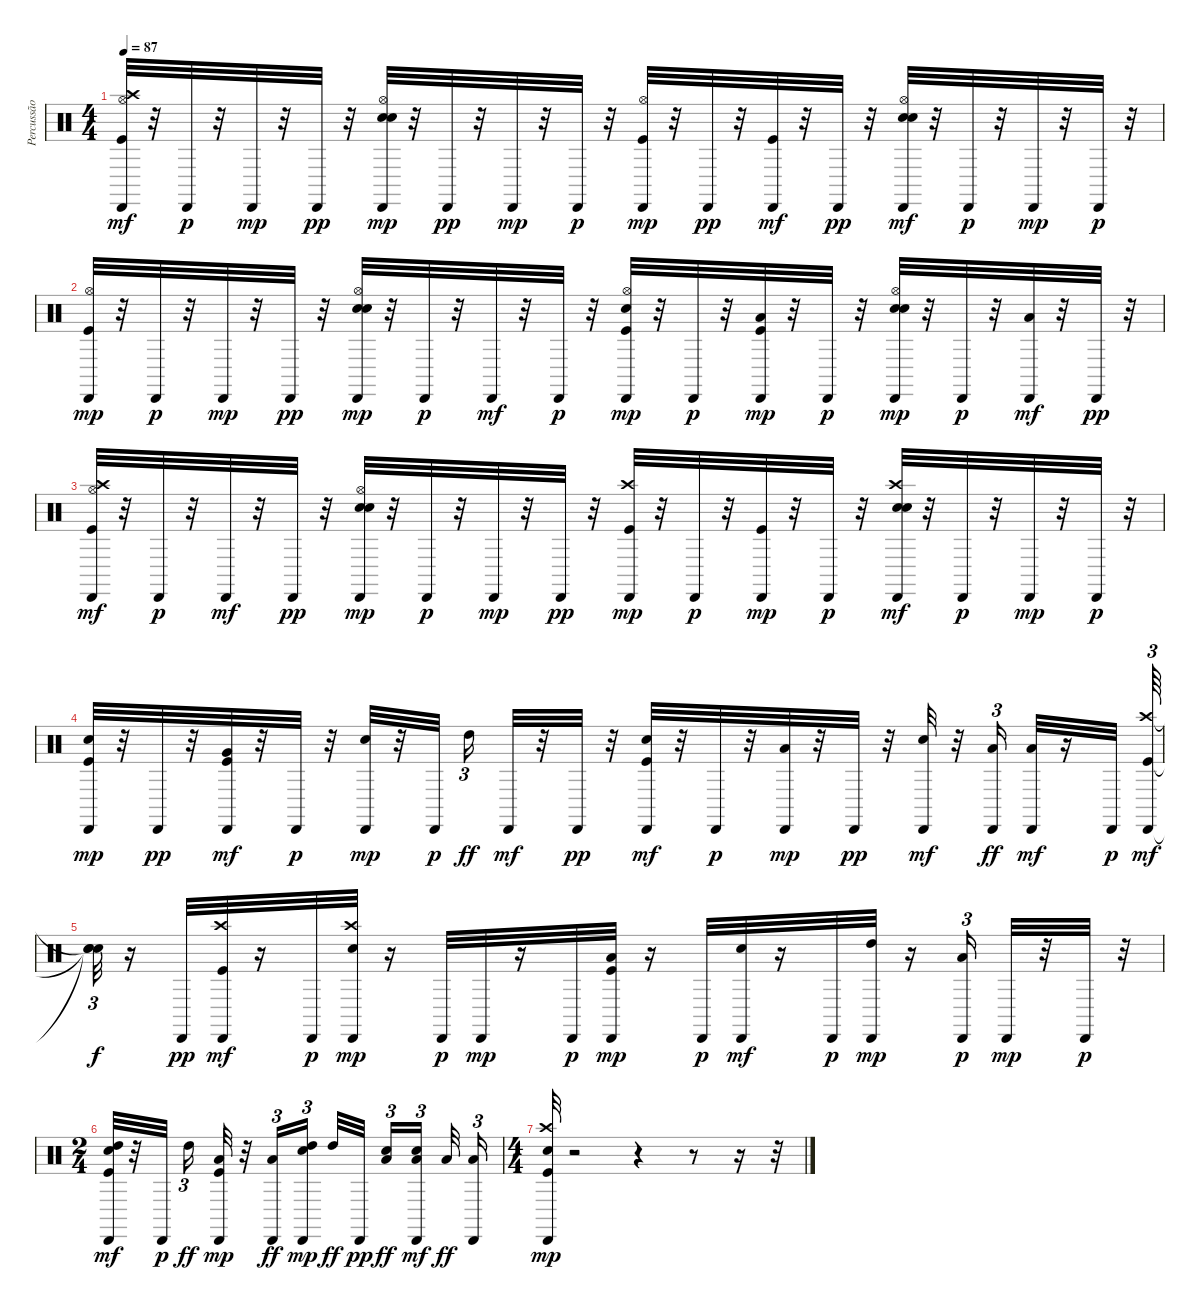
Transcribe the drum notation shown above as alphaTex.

\track ("Percussão" "Percussão") {instrument percussion}
\staff {score}
\articulation defaults
\ts (4 4)
\tempo 87
\clef neutral
\ks c
("Kick (hit)" "Hi-Hat (open)" "Crash high (hit)" "Cabasa (hit)").32{dy mf} r.32 "Cabasa (hit)".32{dy p} r.32 "Cabasa (hit)".32{dy mp} r.32 "Cabasa (hit)".32{dy pp} r.32 ("Electric Snare (hit)" "Hi-Hat (open)" "Hand Clap (hit)" "Cabasa (hit)").32{dy mp} r.32 "Cabasa (hit)".32{dy pp} r.32 "Cabasa (hit)".32{dy mp} r.32 "Cabasa (hit)".32{dy p} r.32 ("Kick (hit)" "Hi-Hat (open)" "Cabasa (hit)").32{dy mp} r.32 "Cabasa (hit)".32{dy pp} r.32 ("Kick (hit)" "Cabasa (hit)").32{dy mf} r.32 "Cabasa (hit)".32{dy pp} r.32 ("Electric Snare (hit)" "Hi-Hat (open)" "Hand Clap (hit)" "Cabasa (hit)").32{dy mf} r.32 "Cabasa (hit)".32{dy p} r.32 "Cabasa (hit)".32{dy mp} r.32 "Cabasa (hit)".32{dy p} r.32 |
("Kick (hit)" "Hi-Hat (open)" "Cabasa (hit)").32{dy mp} r.32 "Cabasa (hit)".32{dy p} r.32 "Cabasa (hit)".32{dy mp} r.32 "Cabasa (hit)".32{dy pp} r.32 ("Electric Snare (hit)" "Hi-Hat (open)" "Hand Clap (hit)" "Cabasa (hit)").32{dy mp} r.32 "Cabasa (hit)".32{dy p} r.32 "Cabasa (hit)".32{dy mf} r.32 "Cabasa (hit)".32{dy p} r.32 ("Kick (hit)" "Electric Snare (hit)" "Hi-Hat (open)" "Cabasa (hit)").32{dy mp} r.32 "Cabasa (hit)".32{dy p} r.32 ("Kick (hit)" "Low Tom (hit)" "Cabasa (hit)").32{dy mp} r.32 "Cabasa (hit)".32{dy p} r.32 ("Electric Snare (hit)" "Hi-Hat (open)" "Hand Clap (hit)" "Cabasa (hit)").32{dy mp} r.32 "Cabasa (hit)".32{dy p} r.32 ("Low Tom (hit)" "Cabasa (hit)").32{dy mf} r.32 "Cabasa (hit)".32{dy pp} r.32 |
("Kick (hit)" "Hi-Hat (open)" "Crash high (hit)" "Cabasa (hit)").32{dy mf} r.32 "Cabasa (hit)".32{dy p} r.32 "Cabasa (hit)".32{dy mf} r.32 "Cabasa (hit)".32{dy pp} r.32 ("Electric Snare (hit)" "Hi-Hat (open)" "Hand Clap (hit)" "Cabasa (hit)").32{dy mp} r.32 "Cabasa (hit)".32{dy p} r.32 "Cabasa (hit)".32{dy mp} r.32 "Cabasa (hit)".32{dy pp} r.32 ("Kick (hit)" "Crash high (hit)" "Cabasa (hit)").32{dy mp} r.32 "Cabasa (hit)".32{dy p} r.32 ("Kick (hit)" "Cabasa (hit)").32{dy mp} r.32 "Cabasa (hit)".32{dy p} r.32 ("Electric Snare (hit)" "Crash high (hit)" "Hand Clap (hit)" "Cabasa (hit)").32{dy mf} r.32 "Cabasa (hit)".32{dy p} r.32 "Cabasa (hit)".32{dy mp} r.32 "Cabasa (hit)".32{dy p} r.32 |
("Kick (hit)" "Electric Snare (hit)" "Cabasa (hit)").32{dy mp} r.32 "Cabasa (hit)".32{dy pp} r.32 ("Kick (hit)" "Very Low Tom (hit)" "Cabasa (hit)").32{dy mf} r.32 "Cabasa (hit)".32{dy p} r.32 ("Electric Snare (hit)" "Cabasa (hit)").32{dy mp} r.32 "Cabasa (hit)".32{dy p beam splitsecondary} "High Tom (hit)".16{tu (3 2) dy ff} "Cabasa (hit)".32{dy mf} r.32 "Cabasa (hit)".32{dy pp} r.32 ("Kick (hit)" "Electric Snare (hit)" "Cabasa (hit)").32{dy mf} r.32 "Cabasa (hit)".32{dy p} r.32 ("Low Tom (hit)" "Cabasa (hit)").32{dy mp} r.32 "Cabasa (hit)".32{dy pp} r.32 ("Electric Snare (hit)" "Cabasa (hit)").32{dy mf} r.32 ("Cabasa (hit)" "Low Tom (hit)").16{tu (3 2) dy ff} ("Low Tom (hit)" "Cabasa (hit)").32{dy mf} r.16 "Cabasa (hit)".32{dy p} ("Kick (hit)" "Crash high (hit)" "Cabasa (hit)").64{tu (3 2) dy mf} |
("Snare (hit)"{t} "Snare (hit)"{t} "Snare (hit)"{t}).32{tu (3 2) dy f} r.16 "Cabasa (hit)".32{dy pp} ("Kick (hit)" "Crash high (hit)" "Cabasa (hit)").32{dy mf} r.16 "Cabasa (hit)".32{dy p} ("Electric Snare (hit)" "Crash high (hit)" "Cabasa (hit)").32{dy mp} r.16 "Cabasa (hit)".32{dy p} "Cabasa (hit)".32{dy mp} r.16 "Cabasa (hit)".32{dy p} ("Kick (hit)" "Low Tom (hit)" "Cabasa (hit)").32{dy mp} r.16 "Cabasa (hit)".32{dy p} ("Electric Snare (hit)" "Cabasa (hit)").32{dy mf} r.16 "Cabasa (hit)".32{dy p} ("High Tom (hit)" "Cabasa (hit)").32{dy mp} r.16 ("Cabasa (hit)" "Low Tom (hit)").16{tu (3 2) dy p} "Cabasa (hit)".32{dy mp} r.32 "Cabasa (hit)".32{dy p} r.32 |
\ts (2 4)
("High Tom (hit)" "Electric Snare (hit)" "Kick (hit)" "Cabasa (hit)").32{dy mf} r.32 "Cabasa (hit)".32{dy p beam splitsecondary} "High Tom (hit)".16{tu (3 2) dy ff} ("Low Tom (hit)" "Kick (hit)" "Cabasa (hit)").32{dy mp} r.32 ("Cabasa (hit)" "Low Tom (hit)").16{tu (3 2) dy ff} ("High Tom (hit)" "Electric Snare (hit)" "Cabasa (hit)").16{tu (3 2) dy mp} "High Tom (hit)".32{dy ff} "Cabasa (hit)".32{dy pp beam splitsecondary} ("Low Tom (hit)" "Electric Snare (hit)").16{tu (3 2) dy ff} ("Low Tom (hit)" "Electric Snare (hit)" "Cabasa (hit)").16{tu (3 2) dy mf beam splitsecondary} "Low Floor Tom (hit)".32{dy ff} ("Cabasa (hit)" "Low Floor Tom (hit)").16{tu (3 2)} |
\ts (4 4)
("Kick (hit)" "Snare (hit) 2" "Crash high (hit)" "Cabasa (hit)").32{dy mp} r.2 r.4 r.8 r.16 r.32
